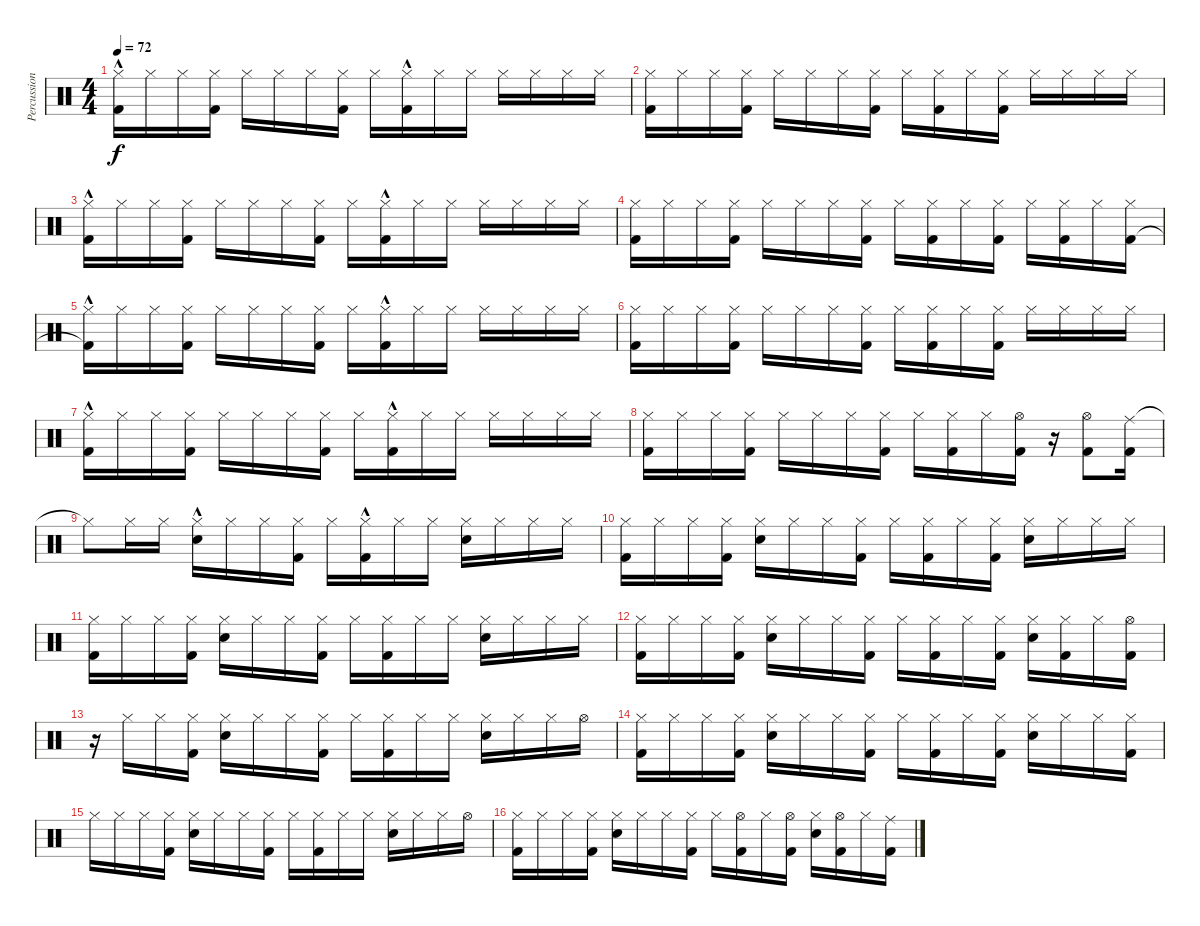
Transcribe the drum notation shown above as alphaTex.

\track ("Percussions" "Percussion") {instrument percussion}
\staff {score}
\articulation defaults
\ts (4 4)
\tempo 72
\clef neutral
\ks c
("Hi-Hat (closed)" "Kick (hit) 2"{hac}).16{dy f} "Hi-Hat (closed)".16 "Hi-Hat (closed)".16 ("Hi-Hat (closed)" "Kick (hit) 2").16 "Hi-Hat (closed)".16 "Hi-Hat (closed)".16 "Hi-Hat (closed)".16 ("Hi-Hat (closed)" "Kick (hit) 2").16 "Hi-Hat (closed)".16 ("Hi-Hat (closed)" "Kick (hit) 2"{hac}).16 "Hi-Hat (closed)".16 "Hi-Hat (closed)".16 "Hi-Hat (closed)".16 "Hi-Hat (closed)".16 "Hi-Hat (closed)".16 "Hi-Hat (closed)".16 |
("Hi-Hat (closed)" "Kick (hit) 2").16 "Hi-Hat (closed)".16 "Hi-Hat (closed)".16 ("Hi-Hat (closed)" "Kick (hit) 2").16 "Hi-Hat (closed)".16 "Hi-Hat (closed)".16 "Hi-Hat (closed)".16 ("Hi-Hat (closed)" "Kick (hit) 2").16 "Hi-Hat (closed)".16 ("Hi-Hat (closed)" "Kick (hit) 2").16 "Hi-Hat (closed)".16 ("Hi-Hat (closed)" "Kick (hit) 2").16 "Hi-Hat (closed)".16 "Hi-Hat (closed)".16 "Hi-Hat (closed)".16 "Hi-Hat (closed)".16 |
("Hi-Hat (closed)" "Kick (hit) 2"{hac}).16 "Hi-Hat (closed)".16 "Hi-Hat (closed)".16 ("Hi-Hat (closed)" "Kick (hit) 2").16 "Hi-Hat (closed)".16 "Hi-Hat (closed)".16 "Hi-Hat (closed)".16 ("Hi-Hat (closed)" "Kick (hit) 2").16 "Hi-Hat (closed)".16 ("Hi-Hat (closed)" "Kick (hit) 2"{hac}).16 "Hi-Hat (closed)".16 "Hi-Hat (closed)".16 "Hi-Hat (closed)".16 "Hi-Hat (closed)".16 "Hi-Hat (closed)".16 "Hi-Hat (closed)".16 |
("Hi-Hat (closed)" "Kick (hit) 2").16 "Hi-Hat (closed)".16 "Hi-Hat (closed)".16 ("Hi-Hat (closed)" "Kick (hit) 2").16 "Hi-Hat (closed)".16 "Hi-Hat (closed)".16 "Hi-Hat (closed)".16 ("Hi-Hat (closed)" "Kick (hit) 2").16 "Hi-Hat (closed)".16 ("Hi-Hat (closed)" "Kick (hit) 2").16 "Hi-Hat (closed)".16 ("Hi-Hat (closed)" "Kick (hit) 2").16 "Hi-Hat (closed)".16 ("Hi-Hat (closed)" "Kick (hit) 2").16 "Hi-Hat (closed)".16 ("Hi-Hat (closed)" "Kick (hit) 2").16 |
("Hi-Hat (closed)" "Kick (hit) 2"{hac t}).16 "Hi-Hat (closed)".16 "Hi-Hat (closed)".16 ("Hi-Hat (closed)" "Kick (hit) 2").16 "Hi-Hat (closed)".16 "Hi-Hat (closed)".16 "Hi-Hat (closed)".16 ("Hi-Hat (closed)" "Kick (hit) 2").16 "Hi-Hat (closed)".16 ("Hi-Hat (closed)" "Kick (hit) 2"{hac}).16 "Hi-Hat (closed)".16 "Hi-Hat (closed)".16 "Hi-Hat (closed)".16 "Hi-Hat (closed)".16 "Hi-Hat (closed)".16 "Hi-Hat (closed)".16 |
("Hi-Hat (closed)" "Kick (hit) 2").16 "Hi-Hat (closed)".16 "Hi-Hat (closed)".16 ("Hi-Hat (closed)" "Kick (hit) 2").16 "Hi-Hat (closed)".16 "Hi-Hat (closed)".16 "Hi-Hat (closed)".16 ("Hi-Hat (closed)" "Kick (hit) 2").16 "Hi-Hat (closed)".16 ("Hi-Hat (closed)" "Kick (hit) 2").16 "Hi-Hat (closed)".16 ("Hi-Hat (closed)" "Kick (hit) 2").16 "Hi-Hat (closed)".16 "Hi-Hat (closed)".16 "Hi-Hat (closed)".16 "Hi-Hat (closed)".16 |
("Hi-Hat (closed)" "Kick (hit) 2"{hac}).16 "Hi-Hat (closed)".16 "Hi-Hat (closed)".16 ("Hi-Hat (closed)" "Kick (hit) 2").16 "Hi-Hat (closed)".16 "Hi-Hat (closed)".16 "Hi-Hat (closed)".16 ("Hi-Hat (closed)" "Kick (hit) 2").16 "Hi-Hat (closed)".16 ("Hi-Hat (closed)" "Kick (hit) 2"{hac}).16 "Hi-Hat (closed)".16 "Hi-Hat (closed)".16 "Hi-Hat (closed)".16 "Hi-Hat (closed)".16 "Hi-Hat (closed)".16 "Hi-Hat (closed)".16 |
("Hi-Hat (closed)" "Kick (hit) 2").16 "Hi-Hat (closed)".16 "Hi-Hat (closed)".16 ("Hi-Hat (closed)" "Kick (hit) 2").16 "Hi-Hat (closed)".16 "Hi-Hat (closed)".16 "Hi-Hat (closed)".16 ("Hi-Hat (closed)" "Kick (hit) 2").16 "Hi-Hat (closed)".16 ("Hi-Hat (closed)" "Kick (hit) 2").16 "Hi-Hat (closed)".16 ("Hi-Hat (open)" "Kick (hit) 2").16 r.16 ("Hi-Hat (open)" "Kick (hit) 2").8 ("Ride (middle)" "Kick (hit) 2").16 |
"Hi-Hat (closed)"{t}.8 "Hi-Hat (closed)".16 "Hi-Hat (closed)".16 ("Hi-Hat (closed)" "Electric Snare (hit)"{hac}).16 "Hi-Hat (closed)".16 "Hi-Hat (closed)".16 ("Hi-Hat (closed)" "Kick (hit) 2").16 "Hi-Hat (closed)".16 ("Hi-Hat (closed)" "Kick (hit) 2"{hac}).16 "Hi-Hat (closed)".16 "Hi-Hat (closed)".16 ("Hi-Hat (closed)" "Electric Snare (hit)").16 "Hi-Hat (closed)".16 "Hi-Hat (closed)".16 "Hi-Hat (closed)".16 |
("Hi-Hat (closed)" "Kick (hit) 2").16 "Hi-Hat (closed)".16 "Hi-Hat (closed)".16 ("Hi-Hat (closed)" "Kick (hit) 2").16 ("Hi-Hat (closed)" "Electric Snare (hit)").16 "Hi-Hat (closed)".16 "Hi-Hat (closed)".16 ("Hi-Hat (closed)" "Kick (hit) 2").16 "Hi-Hat (closed)".16 ("Hi-Hat (closed)" "Kick (hit) 2").16 "Hi-Hat (closed)".16 ("Hi-Hat (closed)" "Kick (hit) 2").16 ("Hi-Hat (closed)" "Electric Snare (hit)").16 "Hi-Hat (closed)".16 "Hi-Hat (closed)".16 "Hi-Hat (closed)".16 |
("Hi-Hat (closed)" "Kick (hit) 2").16 "Hi-Hat (closed)".16 "Hi-Hat (closed)".16 ("Hi-Hat (closed)" "Kick (hit) 2").16 ("Hi-Hat (closed)" "Electric Snare (hit)").16 "Hi-Hat (closed)".16 "Hi-Hat (closed)".16 ("Hi-Hat (closed)" "Kick (hit) 2").16 "Hi-Hat (closed)".16 ("Hi-Hat (closed)" "Kick (hit) 2").16 "Hi-Hat (closed)".16 "Hi-Hat (closed)".16 ("Hi-Hat (closed)" "Electric Snare (hit)").16 "Hi-Hat (closed)".16 "Hi-Hat (closed)".16 "Hi-Hat (closed)".16 |
("Hi-Hat (closed)" "Kick (hit) 2").16 "Hi-Hat (closed)".16 "Hi-Hat (closed)".16 ("Hi-Hat (closed)" "Kick (hit) 2").16 ("Hi-Hat (closed)" "Electric Snare (hit)").16 "Hi-Hat (closed)".16 "Hi-Hat (closed)".16 ("Hi-Hat (closed)" "Kick (hit) 2").16 "Hi-Hat (closed)".16 ("Hi-Hat (closed)" "Kick (hit) 2").16 "Hi-Hat (closed)".16 ("Hi-Hat (closed)" "Kick (hit) 2").16 ("Hi-Hat (closed)" "Electric Snare (hit)").16 ("Hi-Hat (closed)" "Kick (hit) 2").16 "Hi-Hat (closed)".16 ("Hi-Hat (open)" "Kick (hit) 2").16 |
r.16 "Hi-Hat (closed)".16 "Hi-Hat (closed)".16 ("Hi-Hat (closed)" "Kick (hit) 2").16 ("Hi-Hat (closed)" "Electric Snare (hit)").16 "Hi-Hat (closed)".16 "Hi-Hat (closed)".16 ("Hi-Hat (closed)" "Kick (hit) 2").16 "Hi-Hat (closed)".16 ("Hi-Hat (closed)" "Kick (hit) 2").16 "Hi-Hat (closed)".16 "Hi-Hat (closed)".16 ("Hi-Hat (closed)" "Electric Snare (hit)").16 "Hi-Hat (closed)".16 "Hi-Hat (closed)".16 "Hi-Hat (open)".16 |
("Hi-Hat (closed)" "Kick (hit) 2").16 "Hi-Hat (closed)".16 "Hi-Hat (closed)".16 ("Hi-Hat (closed)" "Kick (hit) 2").16 ("Hi-Hat (closed)" "Electric Snare (hit)").16 "Hi-Hat (closed)".16 "Hi-Hat (closed)".16 ("Hi-Hat (closed)" "Kick (hit) 2").16 "Hi-Hat (closed)".16 ("Hi-Hat (closed)" "Kick (hit) 2").16 "Hi-Hat (closed)".16 ("Hi-Hat (closed)" "Kick (hit) 2").16 ("Hi-Hat (closed)" "Electric Snare (hit)").16 "Hi-Hat (closed)".16 "Hi-Hat (closed)".16 ("Hi-Hat (closed)" "Kick (hit) 2").16 |
"Hi-Hat (closed)".16 "Hi-Hat (closed)".16 "Hi-Hat (closed)".16 ("Hi-Hat (closed)" "Kick (hit) 2").16 ("Hi-Hat (closed)" "Electric Snare (hit)").16 "Hi-Hat (closed)".16 "Hi-Hat (closed)".16 ("Hi-Hat (closed)" "Kick (hit) 2").16 "Hi-Hat (closed)".16 ("Hi-Hat (closed)" "Kick (hit) 2").16 "Hi-Hat (closed)".16 "Hi-Hat (closed)".16 ("Hi-Hat (closed)" "Electric Snare (hit)").16 "Hi-Hat (closed)".16 "Hi-Hat (closed)".16 "Hi-Hat (open)".16 |
("Hi-Hat (closed)" "Kick (hit) 2").16 "Hi-Hat (closed)".16 "Hi-Hat (closed)".16 ("Hi-Hat (closed)" "Kick (hit) 2").16 ("Hi-Hat (closed)" "Electric Snare (hit)").16 "Hi-Hat (closed)".16 "Hi-Hat (closed)".16 ("Hi-Hat (closed)" "Kick (hit) 2").16 "Hi-Hat (closed)".16 ("Hi-Hat (open)" "Kick (hit) 2").16 "Hi-Hat (closed)".16 ("Hi-Hat (open)" "Kick (hit) 2").16 ("Hi-Hat (closed)" "Electric Snare (hit)").16 ("Hi-Hat (open)" "Kick (hit) 2").16 "Hi-Hat (closed)".16 ("Ride (middle)" "Kick (hit) 2").16
